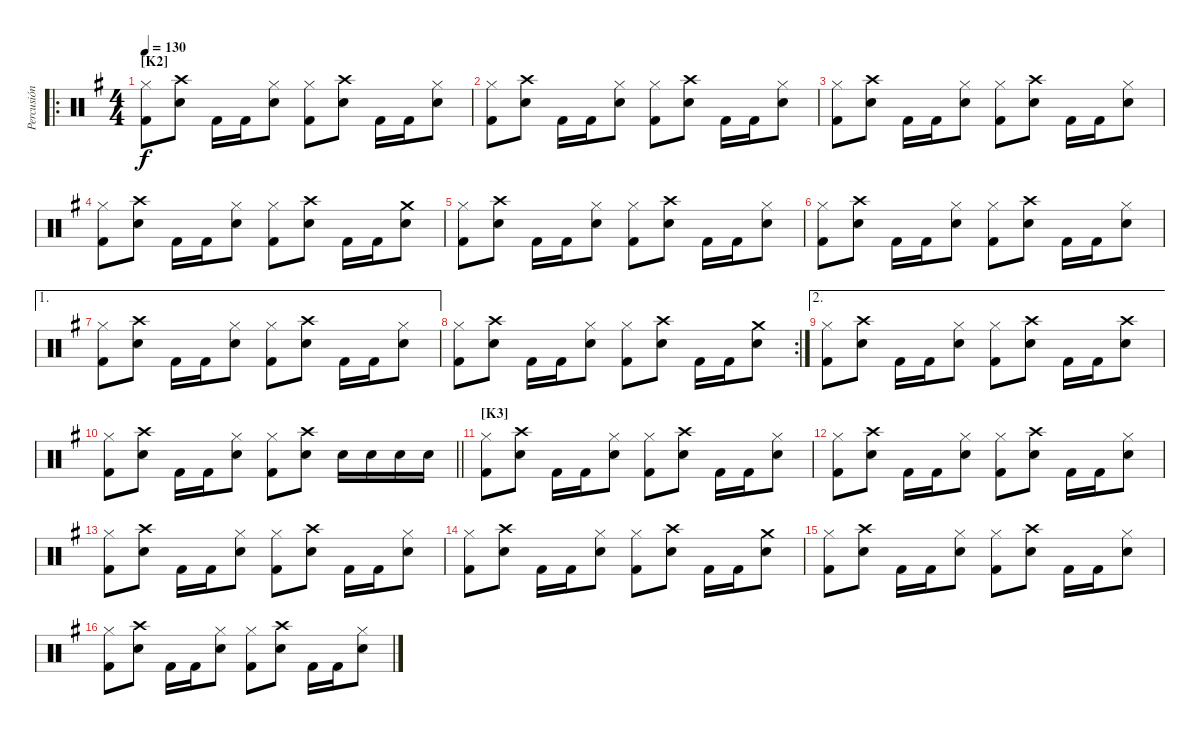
\track ("Percusión" "Percusión") {instrument percussion}
\staff {score}
\articulation defaults
\ro
\ts (4 4)
\section ("" "[K2]")
\tempo 130
\clef neutral
\ks g
("Kick (hit) 2" "Hi-Hat (closed)").8{dy f} ("Snare (hit) 2" "Crash high (hit)").8 "Kick (hit) 2".16 "Kick (hit) 2".16 ("Snare (hit) 2" "Hi-Hat (closed)").8 ("Kick (hit) 2" "Hi-Hat (closed)").8 ("Snare (hit) 2" "Crash high (hit)").8 "Kick (hit) 2".16 "Kick (hit) 2".16 ("Snare (hit) 2" "Hi-Hat (closed)").8 |
("Kick (hit) 2" "Hi-Hat (closed)").8 ("Snare (hit) 2" "Crash high (hit)").8 "Kick (hit) 2".16 "Kick (hit) 2".16 ("Snare (hit) 2" "Hi-Hat (closed)").8 ("Kick (hit) 2" "Hi-Hat (closed)").8 ("Snare (hit) 2" "Crash high (hit)").8 "Kick (hit) 2".16 "Kick (hit) 2".16 ("Snare (hit) 2" "Hi-Hat (closed)").8 |
("Kick (hit) 2" "Hi-Hat (closed)").8 ("Snare (hit) 2" "Crash high (hit)").8 "Kick (hit) 2".16 "Kick (hit) 2".16 ("Snare (hit) 2" "Hi-Hat (closed)").8 ("Kick (hit) 2" "Hi-Hat (closed)").8 ("Snare (hit) 2" "Crash high (hit)").8 "Kick (hit) 2".16 "Kick (hit) 2".16 ("Snare (hit) 2" "Hi-Hat (closed)").8 |
("Kick (hit) 2" "Hi-Hat (closed)").8 ("Snare (hit) 2" "Crash high (hit)").8 "Kick (hit) 2".16 "Kick (hit) 2".16 ("Snare (hit) 2" "Hi-Hat (closed)").8 ("Kick (hit) 2" "Hi-Hat (closed)").8 ("Snare (hit) 2" "Crash high (hit)").8 "Kick (hit) 2".16 "Kick (hit) 2".16 ("Snare (hit) 2" "Crash medium (hit)").8 |
("Kick (hit) 2" "Hi-Hat (closed)").8 ("Snare (hit) 2" "Crash high (hit)").8 "Kick (hit) 2".16 "Kick (hit) 2".16 ("Snare (hit) 2" "Hi-Hat (closed)").8 ("Kick (hit) 2" "Hi-Hat (closed)").8 ("Snare (hit) 2" "Crash high (hit)").8 "Kick (hit) 2".16 "Kick (hit) 2".16 ("Snare (hit) 2" "Hi-Hat (closed)").8 |
("Kick (hit) 2" "Hi-Hat (closed)").8 ("Snare (hit) 2" "Crash high (hit)").8 "Kick (hit) 2".16 "Kick (hit) 2".16 ("Snare (hit) 2" "Hi-Hat (closed)").8 ("Kick (hit) 2" "Hi-Hat (closed)").8 ("Snare (hit) 2" "Crash high (hit)").8 "Kick (hit) 2".16 "Kick (hit) 2".16 ("Snare (hit) 2" "Hi-Hat (closed)").8 |
\ae 1
("Kick (hit) 2" "Hi-Hat (closed)").8 ("Snare (hit) 2" "Crash high (hit)").8 "Kick (hit) 2".16 "Kick (hit) 2".16 ("Snare (hit) 2" "Hi-Hat (closed)").8 ("Kick (hit) 2" "Hi-Hat (closed)").8 ("Snare (hit) 2" "Crash high (hit)").8 "Kick (hit) 2".16 "Kick (hit) 2".16 ("Snare (hit) 2" "Hi-Hat (closed)").8 |
\rc 2
("Kick (hit) 2" "Hi-Hat (closed)").8 ("Snare (hit) 2" "Crash high (hit)").8 "Kick (hit) 2".16 "Kick (hit) 2".16 ("Snare (hit) 2" "Hi-Hat (closed)").8 ("Kick (hit) 2" "Hi-Hat (closed)").8 ("Snare (hit) 2" "Crash high (hit)").8 "Kick (hit) 2".16 "Kick (hit) 2".16 ("Snare (hit) 2" "Crash medium (hit)").8 |
\ae 2
("Kick (hit) 2" "Hi-Hat (closed)").8 ("Snare (hit) 2" "Crash high (hit)").8 "Kick (hit) 2".16 "Kick (hit) 2".16 ("Snare (hit) 2" "Hi-Hat (closed)").8 ("Kick (hit) 2" "Hi-Hat (closed)").8 ("Snare (hit) 2" "Crash high (hit)").8 "Kick (hit) 2".16 "Kick (hit) 2".16 ("Snare (hit) 2" "Crash high (hit)").8 |
\barLineRight lightlight
("Kick (hit) 2" "Hi-Hat (closed)").8 ("Snare (hit) 2" "Crash high (hit)").8 "Kick (hit) 2".16 "Kick (hit) 2".16 ("Snare (hit) 2" "Hi-Hat (closed)").8 ("Kick (hit) 2" "Hi-Hat (closed)").8 ("Snare (hit) 2" "Crash high (hit)").8 "Snare (hit) 2".16 "Snare (hit) 2".16 "Snare (hit) 2".16 "Snare (hit) 2".16 |
\section ("" "[K3]")
("Kick (hit) 2" "Hi-Hat (closed)").8 ("Snare (hit) 2" "Crash high (hit)").8 "Kick (hit) 2".16 "Kick (hit) 2".16 ("Snare (hit) 2" "Hi-Hat (closed)").8 ("Kick (hit) 2" "Hi-Hat (closed)").8 ("Snare (hit) 2" "Crash high (hit)").8 "Kick (hit) 2".16 "Kick (hit) 2".16 ("Snare (hit) 2" "Hi-Hat (closed)").8 |
("Kick (hit) 2" "Hi-Hat (closed)").8 ("Snare (hit) 2" "Crash high (hit)").8 "Kick (hit) 2".16 "Kick (hit) 2".16 ("Snare (hit) 2" "Hi-Hat (closed)").8 ("Kick (hit) 2" "Hi-Hat (closed)").8 ("Snare (hit) 2" "Crash high (hit)").8 "Kick (hit) 2".16 "Kick (hit) 2".16 ("Snare (hit) 2" "Hi-Hat (closed)").8 |
("Kick (hit) 2" "Hi-Hat (closed)").8 ("Snare (hit) 2" "Crash high (hit)").8 "Kick (hit) 2".16 "Kick (hit) 2".16 ("Snare (hit) 2" "Hi-Hat (closed)").8 ("Kick (hit) 2" "Hi-Hat (closed)").8 ("Snare (hit) 2" "Crash high (hit)").8 "Kick (hit) 2".16 "Kick (hit) 2".16 ("Snare (hit) 2" "Hi-Hat (closed)").8 |
("Kick (hit) 2" "Hi-Hat (closed)").8 ("Snare (hit) 2" "Crash high (hit)").8 "Kick (hit) 2".16 "Kick (hit) 2".16 ("Snare (hit) 2" "Hi-Hat (closed)").8 ("Kick (hit) 2" "Hi-Hat (closed)").8 ("Snare (hit) 2" "Crash high (hit)").8 "Kick (hit) 2".16 "Kick (hit) 2".16 ("Snare (hit) 2" "Crash medium (hit)").8 |
("Kick (hit) 2" "Hi-Hat (closed)").8 ("Snare (hit) 2" "Crash high (hit)").8 "Kick (hit) 2".16 "Kick (hit) 2".16 ("Snare (hit) 2" "Hi-Hat (closed)").8 ("Kick (hit) 2" "Hi-Hat (closed)").8 ("Snare (hit) 2" "Crash high (hit)").8 "Kick (hit) 2".16 "Kick (hit) 2".16 ("Snare (hit) 2" "Hi-Hat (closed)").8 |
("Kick (hit) 2" "Hi-Hat (closed)").8 ("Snare (hit) 2" "Crash high (hit)").8 "Kick (hit) 2".16 "Kick (hit) 2".16 ("Snare (hit) 2" "Hi-Hat (closed)").8 ("Kick (hit) 2" "Hi-Hat (closed)").8 ("Snare (hit) 2" "Crash high (hit)").8 "Kick (hit) 2".16 "Kick (hit) 2".16 ("Snare (hit) 2" "Hi-Hat (closed)").8
